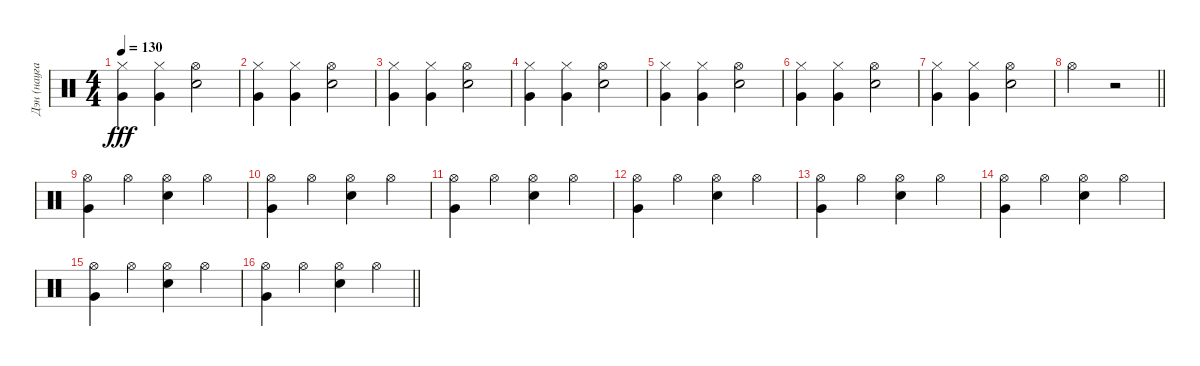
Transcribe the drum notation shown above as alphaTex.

\track ("Дэн (наугад))" "Дэн (науга") {instrument percussion}
\staff {score}
\articulation defaults
\ts (4 4)
\tempo 130
\clef neutral
\ks c
("Hi-Hat (closed)" "Very Low Tom (hit)").4{dy fff} ("Very Low Tom (hit)" "Hi-Hat (closed)").4 ("Snare (hit) 2" "Hi-Hat (open)").2 |
("Hi-Hat (closed)" "Very Low Tom (hit)").4 ("Very Low Tom (hit)" "Hi-Hat (closed)").4 ("Snare (hit) 2" "Hi-Hat (open)").2 |
("Hi-Hat (closed)" "Very Low Tom (hit)").4 ("Very Low Tom (hit)" "Hi-Hat (closed)").4 ("Snare (hit) 2" "Hi-Hat (open)").2 |
("Hi-Hat (closed)" "Very Low Tom (hit)").4 ("Very Low Tom (hit)" "Hi-Hat (closed)").4 ("Snare (hit) 2" "Hi-Hat (open)").2 |
("Hi-Hat (closed)" "Very Low Tom (hit)").4 ("Very Low Tom (hit)" "Hi-Hat (closed)").4 ("Snare (hit) 2" "Hi-Hat (open)").2 |
("Hi-Hat (closed)" "Very Low Tom (hit)").4 ("Very Low Tom (hit)" "Hi-Hat (closed)").4 ("Snare (hit) 2" "Hi-Hat (open)").2 |
("Hi-Hat (closed)" "Very Low Tom (hit)").4 ("Very Low Tom (hit)" "Hi-Hat (closed)").4 ("Snare (hit) 2" "Hi-Hat (open)").2 |
\barLineRight lightlight "Hi-Hat (open)".2
r.2 |
("Hi-Hat (open)" "Very Low Tom (hit)").4 "Hi-Hat (open)".4 ("Hi-Hat (open)" "Snare (hit) 2").4 "Hi-Hat (open)".4 |
("Hi-Hat (open)" "Very Low Tom (hit)").4 "Hi-Hat (open)".4 ("Hi-Hat (open)" "Snare (hit) 2").4 "Hi-Hat (open)".4 |
("Hi-Hat (open)" "Very Low Tom (hit)").4 "Hi-Hat (open)".4 ("Hi-Hat (open)" "Snare (hit) 2").4 "Hi-Hat (open)".4 |
("Hi-Hat (open)" "Very Low Tom (hit)").4 "Hi-Hat (open)".4 ("Hi-Hat (open)" "Snare (hit) 2").4 "Hi-Hat (open)".4 |
("Hi-Hat (open)" "Very Low Tom (hit)").4 "Hi-Hat (open)".4 ("Hi-Hat (open)" "Snare (hit) 2").4 "Hi-Hat (open)".4 |
("Hi-Hat (open)" "Very Low Tom (hit)").4 "Hi-Hat (open)".4 ("Hi-Hat (open)" "Snare (hit) 2").4 "Hi-Hat (open)".4 |
("Hi-Hat (open)" "Very Low Tom (hit)").4 "Hi-Hat (open)".4 ("Hi-Hat (open)" "Snare (hit) 2").4 "Hi-Hat (open)".4 |
\barLineRight lightlight
("Hi-Hat (open)" "Very Low Tom (hit)").4 "Hi-Hat (open)".4 ("Hi-Hat (open)" "Snare (hit) 2").4 "Hi-Hat (open)".4
